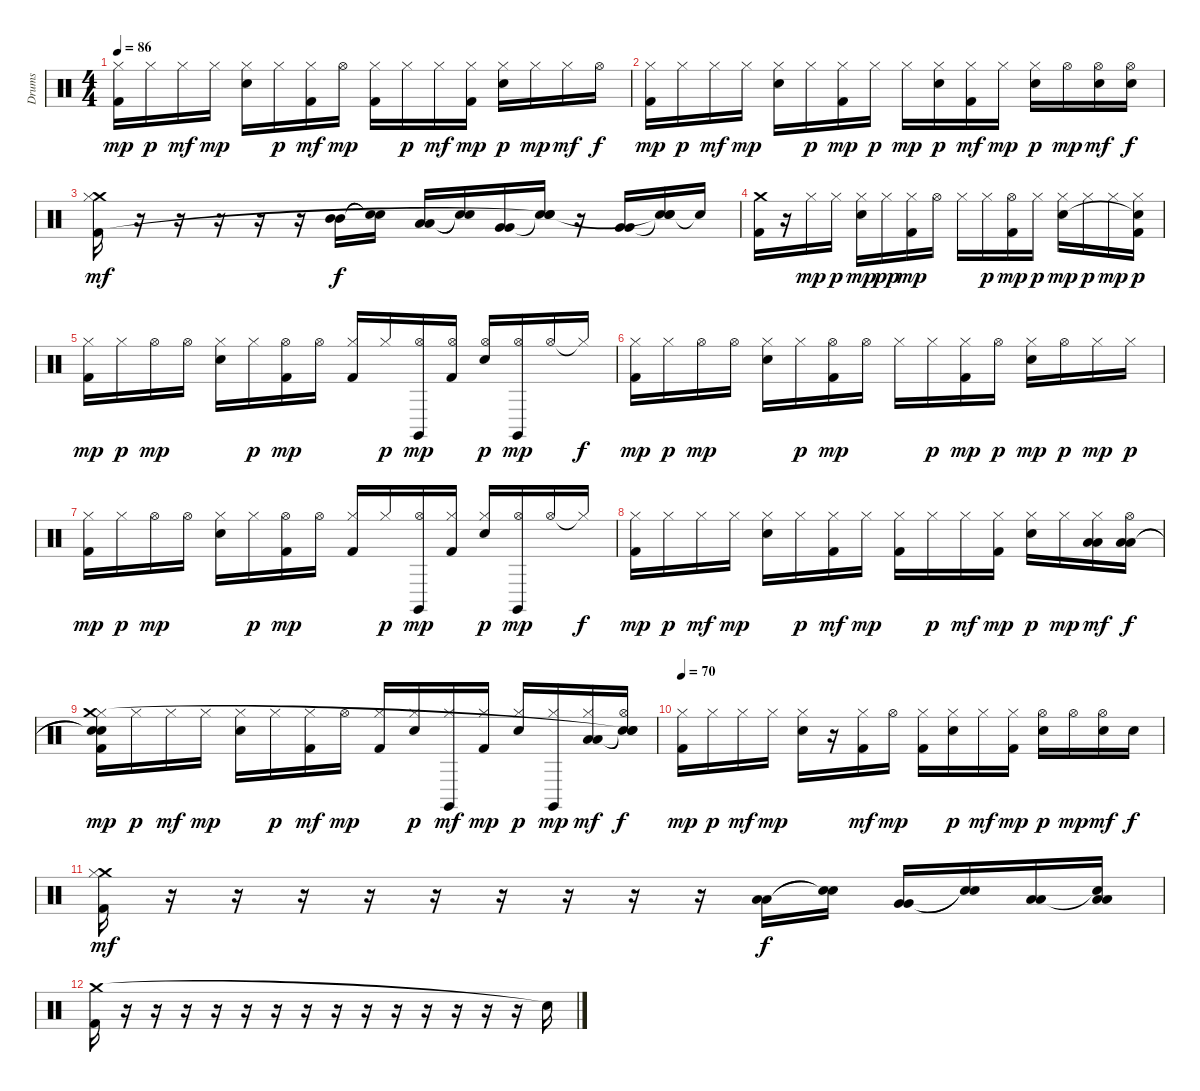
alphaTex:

\track ("Drums" "Drums") {instrument percussion}
\staff {score}
\articulation defaults
\ts (4 4)
\tempo 86
\clef neutral
\ks c
("Hi-Hat (closed)" "Kick (hit) 2").16{dy mp} "Hi-Hat (closed)".16{dy p} "Hi-Hat (closed)".16{dy mf} "Hi-Hat (closed)".16{dy mp} ("Hi-Hat (closed)" "Electric Snare (hit)").16 "Hi-Hat (closed)".16{dy p} ("Hi-Hat (closed)" "Kick (hit) 2").16{dy mf} "Hi-Hat (open)".16{dy mp} ("Hi-Hat (closed)" "Kick (hit) 2").16 "Hi-Hat (closed)".16{dy p} "Hi-Hat (closed)".16{dy mf} ("Hi-Hat (closed)" "Kick (hit) 2").16{dy mp} ("Hi-Hat (closed)" "Electric Snare (hit)").16{dy p} "Hi-Hat (closed)".16{dy mp} "Hi-Hat (closed)".16{dy mf} "Hi-Hat (open)".16{dy f} |
("Hi-Hat (closed)" "Kick (hit) 2").16{dy mp} "Hi-Hat (closed)".16{dy p} "Hi-Hat (closed)".16{dy mf} "Hi-Hat (closed)".16{dy mp} ("Hi-Hat (closed)" "Electric Snare (hit)").16 "Hi-Hat (closed)".16{dy p} ("Hi-Hat (closed)" "Kick (hit) 2").16{dy mp} "Hi-Hat (closed)".16{dy p} "Hi-Hat (closed)".16{dy mp} ("Hi-Hat (closed)" "Electric Snare (hit)").16{dy p} ("Hi-Hat (closed)" "Kick (hit) 2").16{dy mf} "Hi-Hat (closed)".16{dy mp} ("Hi-Hat (closed)" "Electric Snare (hit)").16{dy p} "Hi-Hat (open)".16{dy mp} ("Hi-Hat (open)" "Electric Snare (hit)").16{dy mf} ("Hi-Hat (open)" "Electric Snare (hit)").16{dy f} |
("Crash medium (hit)" "Hi-Hat (closed)" "Kick (hit) 2").16{dy mf} r.16 r.16 r.16 r.16 r.16 ("Mid Tom (hit)" "Mid Tom (hit)").16{dy f} ("Snare (hit)"{t} "Snare (hit)"{t}).16 ("Low Tom (hit)" "Low Tom (hit)").16 ("Snare (hit)"{t} "Snare (hit)"{t}).16 ("Very Low Tom (hit)" "Very Low Tom (hit)").16 ("Electric Snare (hit)" "Snare (hit)"{t} "Snare (hit)"{t}).16 r.16 ("Very Low Tom (hit)" "Very Low Tom (hit)").16 ("Electric Snare (hit)" "Snare (hit)"{t} "Snare (hit)"{t}).16 "Snare (hit)"{t}.16 |
("Crash medium (hit)" "Kick (hit) 2").16 r.16 "Hi-Hat (closed)".16{dy mp} "Hi-Hat (closed)".16{dy p} ("Hi-Hat (closed)" "Electric Snare (hit)").16{dy mp} "Hi-Hat (closed)".16{dy pp} ("Hi-Hat (closed)" "Kick (hit) 2").16{dy mp} "Hi-Hat (open)".16 "Hi-Hat (closed)".16 "Hi-Hat (closed)".16{dy p} ("Hi-Hat (open)" "Kick (hit) 2").16{dy mp} "Hi-Hat (closed)".16{dy p} ("Hi-Hat (closed)" "Electric Snare (hit)").16{dy mp} "Hi-Hat (closed)".16{dy p} "Hi-Hat (closed)".16{dy mp} ("Hi-Hat (closed)" "Snare (hit)"{t} "Kick (hit) 2").16{dy p} |
("Hi-Hat (closed)" "Kick (hit) 2").16{dy mp} "Hi-Hat (closed)".16{dy p} "Hi-Hat (open)".16{dy mp} "Hi-Hat (open)".16 ("Hi-Hat (closed)" "Electric Snare (hit)").16 "Hi-Hat (closed)".16{dy p} ("Hi-Hat (open)" "Kick (hit) 2").16{dy mp} "Hi-Hat (open)".16 ("Hi-Hat (closed)" "Kick (hit) 2").16 "Hi-Hat (closed)".16{dy p} ("Hi-Hat (open)" "Claves (hit)").16{dy mp} ("Hi-Hat (open)" "Kick (hit) 2").16 ("Hi-Hat (open)" "Electric Snare (hit)").16{dy p} ("Hi-Hat (open)" "Claves (hit)").16{dy mp} "Hi-Hat (open)".16 "Hi-Hat (closed)"{t}.16{dy f} |
("Hi-Hat (closed)" "Kick (hit) 2").16{dy mp} "Hi-Hat (closed)".16{dy p} "Hi-Hat (open)".16{dy mp} "Hi-Hat (open)".16 ("Hi-Hat (closed)" "Electric Snare (hit)").16 "Hi-Hat (closed)".16{dy p} ("Hi-Hat (open)" "Kick (hit) 2").16{dy mp} "Hi-Hat (open)".16 "Hi-Hat (closed)".16 "Hi-Hat (closed)".16{dy p} ("Hi-Hat (closed)" "Kick (hit) 2").16{dy mp} "Hi-Hat (open)".16{dy p} ("Hi-Hat (closed)" "Electric Snare (hit)").16{dy mp} "Hi-Hat (open)".16{dy p} "Hi-Hat (closed)".16{dy mp} "Hi-Hat (closed)".16{dy p} |
("Hi-Hat (closed)" "Kick (hit) 2").16{dy mp} "Hi-Hat (closed)".16{dy p} "Hi-Hat (open)".16{dy mp} "Hi-Hat (open)".16 ("Hi-Hat (closed)" "Electric Snare (hit)").16 "Hi-Hat (closed)".16{dy p} ("Hi-Hat (open)" "Kick (hit) 2").16{dy mp} "Hi-Hat (open)".16 ("Hi-Hat (closed)" "Kick (hit) 2").16 "Hi-Hat (closed)".16{dy p} ("Hi-Hat (open)" "Claves (hit)").16{dy mp} ("Hi-Hat (closed)" "Kick (hit) 2").16 ("Hi-Hat (closed)" "Electric Snare (hit)").16{dy p} ("Hi-Hat (open)" "Claves (hit)").16{dy mp} "Hi-Hat (open)".16 "Hi-Hat (closed)"{t}.16{dy f} |
("Hi-Hat (closed)" "Kick (hit) 2").16{dy mp} "Hi-Hat (closed)".16{dy p} "Hi-Hat (closed)".16{dy mf} "Hi-Hat (closed)".16{dy mp} ("Hi-Hat (closed)" "Electric Snare (hit)").16 "Hi-Hat (closed)".16{dy p} ("Hi-Hat (closed)" "Kick (hit) 2").16{dy mf} "Hi-Hat (closed)".16{dy mp} ("Hi-Hat (closed)" "Kick (hit) 2").16 "Hi-Hat (closed)".16{dy p} "Hi-Hat (closed)".16{dy mf} ("Hi-Hat (closed)" "Kick (hit) 2").16{dy mp} ("Hi-Hat (closed)" "Electric Snare (hit)").16{dy p} "Hi-Hat (closed)".16{dy mp} ("Hi-Hat (closed)" "Low Tom (hit)" "Low Tom (hit)").16{dy mf} ("Hi-Hat (open)" "Low Tom (hit)" "Low Tom (hit)").16{dy f} |
("Hi-Hat (closed)" "Snare (hit)"{t} "Snare (hit)"{t} "Crash medium (hit)" "Kick (hit) 2").16{dy mp} "Hi-Hat (closed)".16{dy p} "Hi-Hat (closed)".16{dy mf} "Hi-Hat (closed)".16{dy mp} ("Hi-Hat (closed)" "Electric Snare (hit)").16 "Hi-Hat (closed)".16{dy p} ("Hi-Hat (closed)" "Kick (hit) 2").16{dy mf} "Hi-Hat (open)".16{dy mp} ("Hi-Hat (closed)" "Kick (hit) 2").16 ("Hi-Hat (closed)" "Electric Snare (hit)").16{dy p} ("Hi-Hat (closed)" "Claves (hit)").16{dy mf} ("Hi-Hat (closed)" "Kick (hit) 2").16{dy mp} ("Hi-Hat (closed)" "Electric Snare (hit)").16{dy p} ("Hi-Hat (closed)" "Claves (hit)").16{dy mp} ("Hi-Hat (closed)" "Low Floor Tom (hit)" "Low Floor Tom (hit)").16{dy mf} ("Hi-Hat (open)" "Snare (hit)"{t} "Snare (hit)"{t} "Snare (hit)"{t}).16{dy f} |
\tempo 70
("Hi-Hat (closed)" "Kick (hit) 2").16{dy mp} "Hi-Hat (closed)".16{dy p} "Hi-Hat (closed)".16{dy mf} "Hi-Hat (closed)".16{dy mp} ("Hi-Hat (closed)" "Electric Snare (hit)").16 r.16 ("Hi-Hat (closed)" "Kick (hit) 2").16{dy mf} "Hi-Hat (open)".16{dy mp} ("Hi-Hat (closed)" "Kick (hit) 2").16 ("Hi-Hat (closed)" "Electric Snare (hit)").16{dy p} "Hi-Hat (closed)".16{dy mf} ("Hi-Hat (closed)" "Kick (hit) 2").16{dy mp} ("Hi-Hat (open)" "Electric Snare (hit)").16{dy p} "Hi-Hat (open)".16{dy mp} ("Hi-Hat (open)" "Electric Snare (hit)").16{dy mf} "Electric Snare (hit)".16{dy f} |
("Crash medium (hit)" "Hi-Hat (closed)" "Kick (hit) 2").16{dy mf} r.16 r.16 r.16 r.16 r.16 r.16 r.16 r.16 r.16 ("Low Tom (hit)" "Low Tom (hit)").16{dy f} ("Snare (hit)"{t} "Snare (hit)"{t}).16 ("Very Low Tom (hit)" "Very Low Tom (hit)").16 ("Snare (hit)"{t} "Snare (hit)"{t}).16 ("Low Floor Tom (hit)" "Low Floor Tom (hit)").16 ("Snare (hit)"{t} "Low Floor Tom (hit)" "Low Floor Tom (hit)").16 |
("Crash medium (hit)" "Kick (hit) 2").16 r.16 r.16 r.16 r.16 r.16 r.16 r.16 r.16 r.16 r.16 r.16 r.16 r.16 r.16 "Snare (hit)"{t}.16
